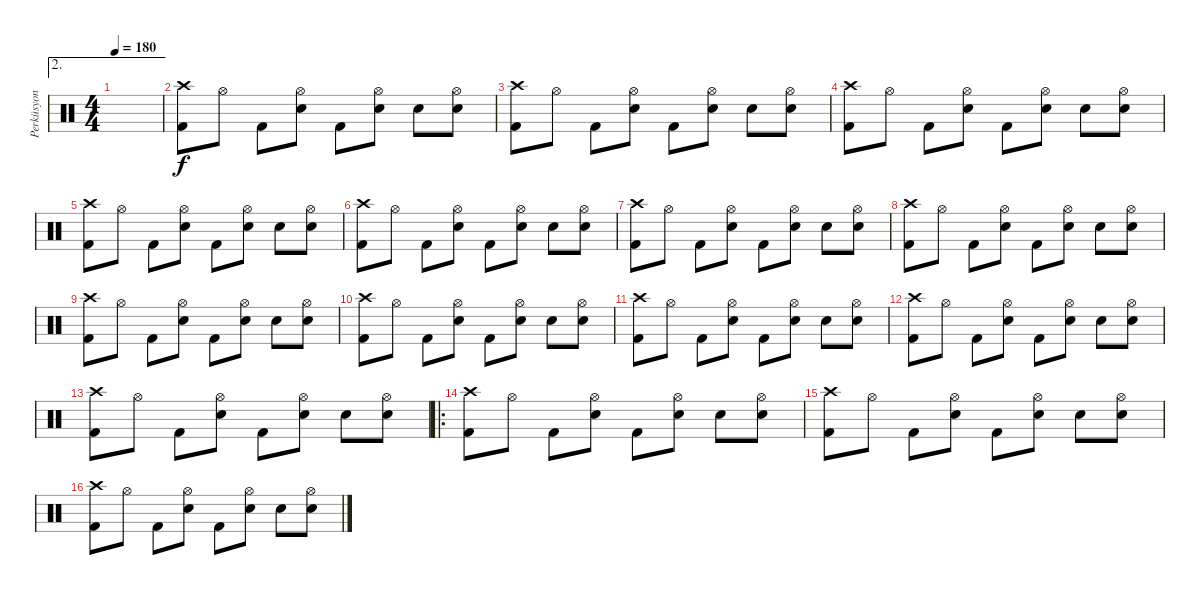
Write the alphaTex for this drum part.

\track ("Perküsyon" "Perküsyon") {instrument percussion}
\staff {score}
\articulation defaults
\ae 2
\ts (4 4)
\tempo 180
\clef neutral
\ks c
|
("Kick (hit) 2" "Crash high (hit)").8 "Hi-Hat (open)".8 "Kick (hit) 2".8 ("Hi-Hat (open)" "Electric Snare (hit)").8 "Kick (hit) 2".8 ("Hi-Hat (open)" "Electric Snare (hit)").8 "Snare (hit) 2".8 ("Electric Snare (hit)" "Hi-Hat (open)").8 |
("Kick (hit) 2" "Crash high (hit)").8 "Hi-Hat (open)".8 "Kick (hit) 2".8 ("Hi-Hat (open)" "Electric Snare (hit)").8 "Kick (hit) 2".8 ("Hi-Hat (open)" "Electric Snare (hit)").8 "Snare (hit) 2".8 ("Electric Snare (hit)" "Hi-Hat (open)").8 |
("Kick (hit) 2" "Crash high (hit)").8 "Hi-Hat (open)".8 "Kick (hit) 2".8 ("Hi-Hat (open)" "Electric Snare (hit)").8 "Kick (hit) 2".8 ("Hi-Hat (open)" "Electric Snare (hit)").8 "Snare (hit) 2".8 ("Electric Snare (hit)" "Hi-Hat (open)").8 |
("Kick (hit) 2" "Crash high (hit)").8 "Hi-Hat (open)".8 "Kick (hit) 2".8 ("Hi-Hat (open)" "Electric Snare (hit)").8 "Kick (hit) 2".8 ("Hi-Hat (open)" "Electric Snare (hit)").8 "Snare (hit) 2".8 ("Electric Snare (hit)" "Hi-Hat (open)").8 |
("Kick (hit) 2" "Crash high (hit)").8 "Hi-Hat (open)".8 "Kick (hit) 2".8 ("Hi-Hat (open)" "Electric Snare (hit)").8 "Kick (hit) 2".8 ("Hi-Hat (open)" "Electric Snare (hit)").8 "Snare (hit) 2".8 ("Electric Snare (hit)" "Hi-Hat (open)").8 |
("Kick (hit) 2" "Crash high (hit)").8 "Hi-Hat (open)".8 "Kick (hit) 2".8 ("Hi-Hat (open)" "Electric Snare (hit)").8 "Kick (hit) 2".8 ("Hi-Hat (open)" "Electric Snare (hit)").8 "Snare (hit) 2".8 ("Electric Snare (hit)" "Hi-Hat (open)").8 |
("Kick (hit) 2" "Crash high (hit)").8 "Hi-Hat (open)".8 "Kick (hit) 2".8 ("Hi-Hat (open)" "Electric Snare (hit)").8 "Kick (hit) 2".8 ("Hi-Hat (open)" "Electric Snare (hit)").8 "Snare (hit) 2".8 ("Electric Snare (hit)" "Hi-Hat (open)").8 |
("Kick (hit) 2" "Crash high (hit)").8 "Hi-Hat (open)".8 "Kick (hit) 2".8 ("Hi-Hat (open)" "Electric Snare (hit)").8 "Kick (hit) 2".8 ("Hi-Hat (open)" "Electric Snare (hit)").8 "Snare (hit) 2".8 ("Electric Snare (hit)" "Hi-Hat (open)").8 |
("Kick (hit) 2" "Crash high (hit)").8 "Hi-Hat (open)".8 "Kick (hit) 2".8 ("Hi-Hat (open)" "Electric Snare (hit)").8 "Kick (hit) 2".8 ("Hi-Hat (open)" "Electric Snare (hit)").8 "Snare (hit) 2".8 ("Electric Snare (hit)" "Hi-Hat (open)").8 |
("Kick (hit) 2" "Crash high (hit)").8 "Hi-Hat (open)".8 "Kick (hit) 2".8 ("Hi-Hat (open)" "Electric Snare (hit)").8 "Kick (hit) 2".8 ("Hi-Hat (open)" "Electric Snare (hit)").8 "Snare (hit) 2".8 ("Electric Snare (hit)" "Hi-Hat (open)").8 |
("Kick (hit) 2" "Crash high (hit)").8 "Hi-Hat (open)".8 "Kick (hit) 2".8 ("Hi-Hat (open)" "Electric Snare (hit)").8 "Kick (hit) 2".8 ("Hi-Hat (open)" "Electric Snare (hit)").8 "Snare (hit) 2".8 ("Electric Snare (hit)" "Hi-Hat (open)").8 |
("Kick (hit) 2" "Crash high (hit)").8 "Hi-Hat (open)".8 "Kick (hit) 2".8 ("Hi-Hat (open)" "Electric Snare (hit)").8 "Kick (hit) 2".8 ("Hi-Hat (open)" "Electric Snare (hit)").8 "Snare (hit) 2".8 ("Electric Snare (hit)" "Hi-Hat (open)").8 |
\ro
("Kick (hit) 2" "Crash high (hit)").8 "Hi-Hat (open)".8 "Kick (hit) 2".8 ("Hi-Hat (open)" "Electric Snare (hit)").8 "Kick (hit) 2".8 ("Hi-Hat (open)" "Electric Snare (hit)").8 "Snare (hit) 2".8 ("Electric Snare (hit)" "Hi-Hat (open)").8 |
("Kick (hit) 2" "Crash high (hit)").8 "Hi-Hat (open)".8 "Kick (hit) 2".8 ("Hi-Hat (open)" "Electric Snare (hit)").8 "Kick (hit) 2".8 ("Hi-Hat (open)" "Electric Snare (hit)").8 "Snare (hit) 2".8 ("Electric Snare (hit)" "Hi-Hat (open)").8 |
("Kick (hit) 2" "Crash high (hit)").8 "Hi-Hat (open)".8 "Kick (hit) 2".8 ("Hi-Hat (open)" "Electric Snare (hit)").8 "Kick (hit) 2".8 ("Hi-Hat (open)" "Electric Snare (hit)").8 "Snare (hit) 2".8 ("Electric Snare (hit)" "Hi-Hat (open)").8
